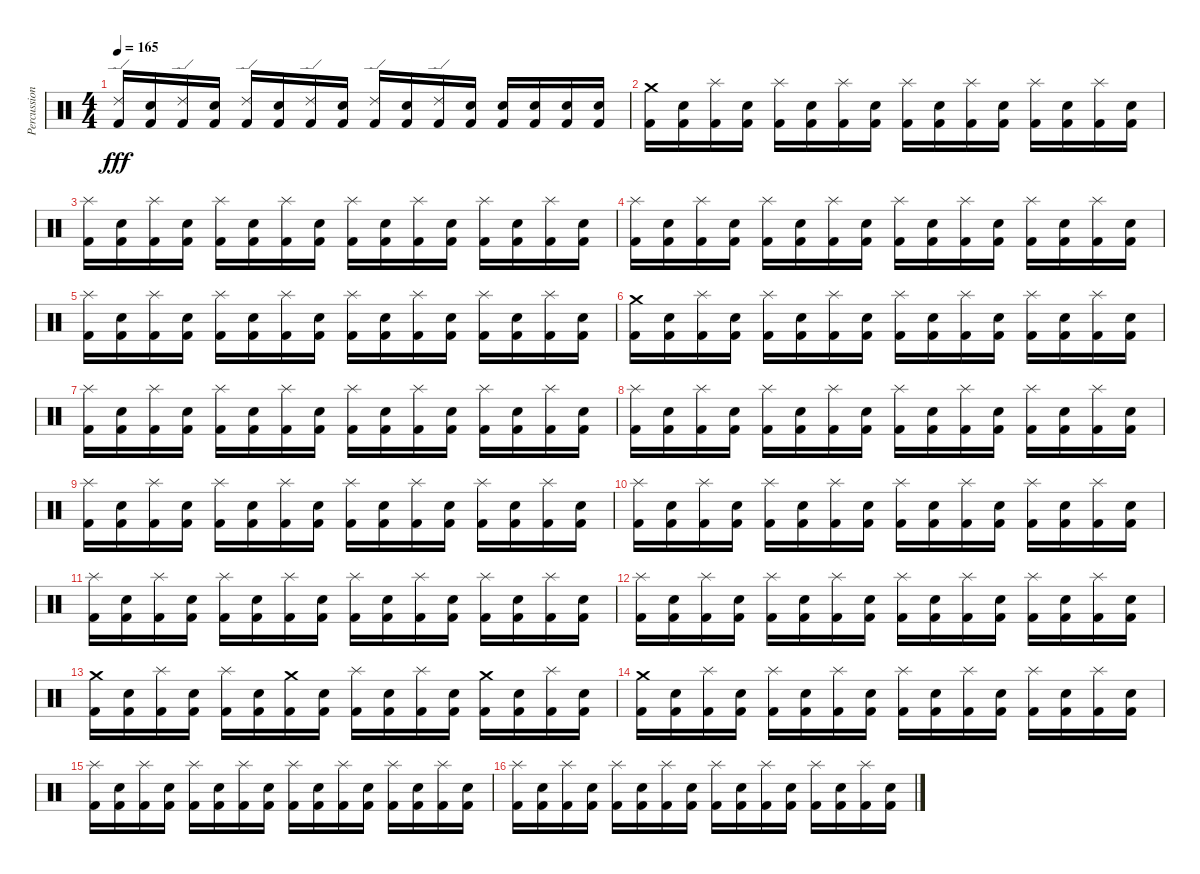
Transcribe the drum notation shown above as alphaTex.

\track ("Percussions" "Percussion") {instrument percussion}
\staff {score}
\articulation defaults
\ts (4 4)
\tempo 165
\clef neutral
\ks c
("Ride (edge) 2" "Kick (hit) 2").16{dy fff} ("Electric Snare (hit)" "Kick (hit) 2").16 ("Ride (edge) 2" "Kick (hit) 2").16 ("Electric Snare (hit)" "Kick (hit) 2").16 ("Ride (edge) 2" "Kick (hit) 2").16 ("Electric Snare (hit)" "Kick (hit) 2").16 ("Ride (edge) 2" "Kick (hit) 2").16 ("Electric Snare (hit)" "Kick (hit) 2").16 ("Ride (edge) 2" "Kick (hit) 2").16 ("Electric Snare (hit)" "Kick (hit) 2").16 ("Ride (edge) 2" "Kick (hit) 2").16 ("Electric Snare (hit)" "Kick (hit) 2").16 ("Electric Snare (hit)" "Kick (hit) 2").16 ("Electric Snare (hit)" "Kick (hit) 2").16 ("Electric Snare (hit)" "Kick (hit) 2").16 ("Electric Snare (hit)" "Kick (hit) 2").16 |
("Crash medium (hit)" "Kick (hit) 2").16 ("Electric Snare (hit)" "Kick (hit) 2").16 ("Splash (hit)" "Kick (hit) 2").16 ("Electric Snare (hit)" "Kick (hit) 2").16 ("Splash (hit)" "Kick (hit) 2").16 ("Electric Snare (hit)" "Kick (hit) 2").16 ("Splash (hit)" "Kick (hit) 2").16 ("Electric Snare (hit)" "Kick (hit) 2").16 ("Splash (hit)" "Kick (hit) 2").16 ("Electric Snare (hit)" "Kick (hit) 2").16 ("Splash (hit)" "Kick (hit) 2").16 ("Electric Snare (hit)" "Kick (hit) 2").16 ("Splash (hit)" "Kick (hit) 2").16 ("Electric Snare (hit)" "Kick (hit) 2").16 ("Splash (hit)" "Kick (hit) 2").16 ("Electric Snare (hit)" "Kick (hit) 2").16 |
("Splash (hit)" "Kick (hit) 2").16 ("Electric Snare (hit)" "Kick (hit) 2").16 ("Splash (hit)" "Kick (hit) 2").16 ("Electric Snare (hit)" "Kick (hit) 2").16 ("Splash (hit)" "Kick (hit) 2").16 ("Electric Snare (hit)" "Kick (hit) 2").16 ("Splash (hit)" "Kick (hit) 2").16 ("Electric Snare (hit)" "Kick (hit) 2").16 ("Splash (hit)" "Kick (hit) 2").16 ("Electric Snare (hit)" "Kick (hit) 2").16 ("Splash (hit)" "Kick (hit) 2").16 ("Electric Snare (hit)" "Kick (hit) 2").16 ("Splash (hit)" "Kick (hit) 2").16 ("Electric Snare (hit)" "Kick (hit) 2").16 ("Splash (hit)" "Kick (hit) 2").16 ("Electric Snare (hit)" "Kick (hit) 2").16 |
("Splash (hit)" "Kick (hit) 2").16 ("Electric Snare (hit)" "Kick (hit) 2").16 ("Splash (hit)" "Kick (hit) 2").16 ("Electric Snare (hit)" "Kick (hit) 2").16 ("Splash (hit)" "Kick (hit) 2").16 ("Electric Snare (hit)" "Kick (hit) 2").16 ("Splash (hit)" "Kick (hit) 2").16 ("Electric Snare (hit)" "Kick (hit) 2").16 ("Splash (hit)" "Kick (hit) 2").16 ("Electric Snare (hit)" "Kick (hit) 2").16 ("Splash (hit)" "Kick (hit) 2").16 ("Electric Snare (hit)" "Kick (hit) 2").16 ("Splash (hit)" "Kick (hit) 2").16 ("Electric Snare (hit)" "Kick (hit) 2").16 ("Splash (hit)" "Kick (hit) 2").16 ("Electric Snare (hit)" "Kick (hit) 2").16 |
("Splash (hit)" "Kick (hit) 2").16 ("Electric Snare (hit)" "Kick (hit) 2").16 ("Splash (hit)" "Kick (hit) 2").16 ("Electric Snare (hit)" "Kick (hit) 2").16 ("Splash (hit)" "Kick (hit) 2").16 ("Electric Snare (hit)" "Kick (hit) 2").16 ("Splash (hit)" "Kick (hit) 2").16 ("Electric Snare (hit)" "Kick (hit) 2").16 ("Splash (hit)" "Kick (hit) 2").16 ("Electric Snare (hit)" "Kick (hit) 2").16 ("Splash (hit)" "Kick (hit) 2").16 ("Electric Snare (hit)" "Kick (hit) 2").16 ("Splash (hit)" "Kick (hit) 2").16 ("Electric Snare (hit)" "Kick (hit) 2").16 ("Splash (hit)" "Kick (hit) 2").16 ("Electric Snare (hit)" "Kick (hit) 2").16 |
("Crash medium (hit)" "Kick (hit) 2").16 ("Electric Snare (hit)" "Kick (hit) 2").16 ("Splash (hit)" "Kick (hit) 2").16 ("Electric Snare (hit)" "Kick (hit) 2").16 ("Splash (hit)" "Kick (hit) 2").16 ("Electric Snare (hit)" "Kick (hit) 2").16 ("Splash (hit)" "Kick (hit) 2").16 ("Electric Snare (hit)" "Kick (hit) 2").16 ("Splash (hit)" "Kick (hit) 2").16 ("Electric Snare (hit)" "Kick (hit) 2").16 ("Splash (hit)" "Kick (hit) 2").16 ("Electric Snare (hit)" "Kick (hit) 2").16 ("Splash (hit)" "Kick (hit) 2").16 ("Electric Snare (hit)" "Kick (hit) 2").16 ("Splash (hit)" "Kick (hit) 2").16 ("Electric Snare (hit)" "Kick (hit) 2").16 |
("Splash (hit)" "Kick (hit) 2").16 ("Electric Snare (hit)" "Kick (hit) 2").16 ("Splash (hit)" "Kick (hit) 2").16 ("Electric Snare (hit)" "Kick (hit) 2").16 ("Splash (hit)" "Kick (hit) 2").16 ("Electric Snare (hit)" "Kick (hit) 2").16 ("Splash (hit)" "Kick (hit) 2").16 ("Electric Snare (hit)" "Kick (hit) 2").16 ("Splash (hit)" "Kick (hit) 2").16 ("Electric Snare (hit)" "Kick (hit) 2").16 ("Splash (hit)" "Kick (hit) 2").16 ("Electric Snare (hit)" "Kick (hit) 2").16 ("Splash (hit)" "Kick (hit) 2").16 ("Electric Snare (hit)" "Kick (hit) 2").16 ("Splash (hit)" "Kick (hit) 2").16 ("Electric Snare (hit)" "Kick (hit) 2").16 |
("Splash (hit)" "Kick (hit) 2").16 ("Electric Snare (hit)" "Kick (hit) 2").16 ("Splash (hit)" "Kick (hit) 2").16 ("Electric Snare (hit)" "Kick (hit) 2").16 ("Splash (hit)" "Kick (hit) 2").16 ("Electric Snare (hit)" "Kick (hit) 2").16 ("Splash (hit)" "Kick (hit) 2").16 ("Electric Snare (hit)" "Kick (hit) 2").16 ("Splash (hit)" "Kick (hit) 2").16 ("Electric Snare (hit)" "Kick (hit) 2").16 ("Splash (hit)" "Kick (hit) 2").16 ("Electric Snare (hit)" "Kick (hit) 2").16 ("Splash (hit)" "Kick (hit) 2").16 ("Electric Snare (hit)" "Kick (hit) 2").16 ("Splash (hit)" "Kick (hit) 2").16 ("Electric Snare (hit)" "Kick (hit) 2").16 |
("Splash (hit)" "Kick (hit) 2").16 ("Electric Snare (hit)" "Kick (hit) 2").16 ("Splash (hit)" "Kick (hit) 2").16 ("Electric Snare (hit)" "Kick (hit) 2").16 ("Splash (hit)" "Kick (hit) 2").16 ("Electric Snare (hit)" "Kick (hit) 2").16 ("Splash (hit)" "Kick (hit) 2").16 ("Electric Snare (hit)" "Kick (hit) 2").16 ("Splash (hit)" "Kick (hit) 2").16 ("Electric Snare (hit)" "Kick (hit) 2").16 ("Splash (hit)" "Kick (hit) 2").16 ("Electric Snare (hit)" "Kick (hit) 2").16 ("Splash (hit)" "Kick (hit) 2").16 ("Electric Snare (hit)" "Kick (hit) 2").16 ("Splash (hit)" "Kick (hit) 2").16 ("Electric Snare (hit)" "Kick (hit) 2").16 |
("Splash (hit)" "Kick (hit) 2").16 ("Electric Snare (hit)" "Kick (hit) 2").16 ("Splash (hit)" "Kick (hit) 2").16 ("Electric Snare (hit)" "Kick (hit) 2").16 ("Splash (hit)" "Kick (hit) 2").16 ("Electric Snare (hit)" "Kick (hit) 2").16 ("Splash (hit)" "Kick (hit) 2").16 ("Electric Snare (hit)" "Kick (hit) 2").16 ("Splash (hit)" "Kick (hit) 2").16 ("Electric Snare (hit)" "Kick (hit) 2").16 ("Splash (hit)" "Kick (hit) 2").16 ("Electric Snare (hit)" "Kick (hit) 2").16 ("Splash (hit)" "Kick (hit) 2").16 ("Electric Snare (hit)" "Kick (hit) 2").16 ("Splash (hit)" "Kick (hit) 2").16 ("Electric Snare (hit)" "Kick (hit) 2").16 |
("Splash (hit)" "Kick (hit) 2").16 ("Electric Snare (hit)" "Kick (hit) 2").16 ("Splash (hit)" "Kick (hit) 2").16 ("Electric Snare (hit)" "Kick (hit) 2").16 ("Splash (hit)" "Kick (hit) 2").16 ("Electric Snare (hit)" "Kick (hit) 2").16 ("Splash (hit)" "Kick (hit) 2").16 ("Electric Snare (hit)" "Kick (hit) 2").16 ("Splash (hit)" "Kick (hit) 2").16 ("Electric Snare (hit)" "Kick (hit) 2").16 ("Splash (hit)" "Kick (hit) 2").16 ("Electric Snare (hit)" "Kick (hit) 2").16 ("Splash (hit)" "Kick (hit) 2").16 ("Electric Snare (hit)" "Kick (hit) 2").16 ("Splash (hit)" "Kick (hit) 2").16 ("Electric Snare (hit)" "Kick (hit) 2").16 |
("Splash (hit)" "Kick (hit) 2").16 ("Electric Snare (hit)" "Kick (hit) 2").16 ("Splash (hit)" "Kick (hit) 2").16 ("Electric Snare (hit)" "Kick (hit) 2").16 ("Splash (hit)" "Kick (hit) 2").16 ("Electric Snare (hit)" "Kick (hit) 2").16 ("Splash (hit)" "Kick (hit) 2").16 ("Electric Snare (hit)" "Kick (hit) 2").16 ("Splash (hit)" "Kick (hit) 2").16 ("Electric Snare (hit)" "Kick (hit) 2").16 ("Splash (hit)" "Kick (hit) 2").16 ("Electric Snare (hit)" "Kick (hit) 2").16 ("Splash (hit)" "Kick (hit) 2").16 ("Electric Snare (hit)" "Kick (hit) 2").16 ("Splash (hit)" "Kick (hit) 2").16 ("Electric Snare (hit)" "Kick (hit) 2").16 |
("Crash medium (hit)" "Kick (hit) 2").16 ("Electric Snare (hit)" "Kick (hit) 2").16 ("Splash (hit)" "Kick (hit) 2").16 ("Electric Snare (hit)" "Kick (hit) 2").16 ("Splash (hit)" "Kick (hit) 2").16 ("Electric Snare (hit)" "Kick (hit) 2").16 ("Crash medium (hit)" "Kick (hit) 2").16 ("Electric Snare (hit)" "Kick (hit) 2").16 ("Splash (hit)" "Kick (hit) 2").16 ("Electric Snare (hit)" "Kick (hit) 2").16 ("Splash (hit)" "Kick (hit) 2").16 ("Electric Snare (hit)" "Kick (hit) 2").16 ("Crash medium (hit)" "Kick (hit) 2").16 ("Electric Snare (hit)" "Kick (hit) 2").16 ("Splash (hit)" "Kick (hit) 2").16 ("Electric Snare (hit)" "Kick (hit) 2").16 |
("Crash medium (hit)" "Kick (hit) 2").16 ("Electric Snare (hit)" "Kick (hit) 2").16 ("Splash (hit)" "Kick (hit) 2").16 ("Electric Snare (hit)" "Kick (hit) 2").16 ("Splash (hit)" "Kick (hit) 2").16 ("Electric Snare (hit)" "Kick (hit) 2").16 ("Splash (hit)" "Kick (hit) 2").16 ("Electric Snare (hit)" "Kick (hit) 2").16 ("Splash (hit)" "Kick (hit) 2").16 ("Electric Snare (hit)" "Kick (hit) 2").16 ("Splash (hit)" "Kick (hit) 2").16 ("Electric Snare (hit)" "Kick (hit) 2").16 ("Splash (hit)" "Kick (hit) 2").16 ("Electric Snare (hit)" "Kick (hit) 2").16 ("Splash (hit)" "Kick (hit) 2").16 ("Electric Snare (hit)" "Kick (hit) 2").16 |
("Splash (hit)" "Kick (hit) 2").16 ("Electric Snare (hit)" "Kick (hit) 2").16 ("Splash (hit)" "Kick (hit) 2").16 ("Electric Snare (hit)" "Kick (hit) 2").16 ("Splash (hit)" "Kick (hit) 2").16 ("Electric Snare (hit)" "Kick (hit) 2").16 ("Splash (hit)" "Kick (hit) 2").16 ("Electric Snare (hit)" "Kick (hit) 2").16 ("Splash (hit)" "Kick (hit) 2").16 ("Electric Snare (hit)" "Kick (hit) 2").16 ("Splash (hit)" "Kick (hit) 2").16 ("Electric Snare (hit)" "Kick (hit) 2").16 ("Splash (hit)" "Kick (hit) 2").16 ("Electric Snare (hit)" "Kick (hit) 2").16 ("Splash (hit)" "Kick (hit) 2").16 ("Electric Snare (hit)" "Kick (hit) 2").16 |
("Splash (hit)" "Kick (hit) 2").16 ("Electric Snare (hit)" "Kick (hit) 2").16 ("Splash (hit)" "Kick (hit) 2").16 ("Electric Snare (hit)" "Kick (hit) 2").16 ("Splash (hit)" "Kick (hit) 2").16 ("Electric Snare (hit)" "Kick (hit) 2").16 ("Splash (hit)" "Kick (hit) 2").16 ("Electric Snare (hit)" "Kick (hit) 2").16 ("Splash (hit)" "Kick (hit) 2").16 ("Electric Snare (hit)" "Kick (hit) 2").16 ("Splash (hit)" "Kick (hit) 2").16 ("Electric Snare (hit)" "Kick (hit) 2").16 ("Splash (hit)" "Kick (hit) 2").16 ("Electric Snare (hit)" "Kick (hit) 2").16 ("Splash (hit)" "Kick (hit) 2").16 ("Electric Snare (hit)" "Kick (hit) 2").16
